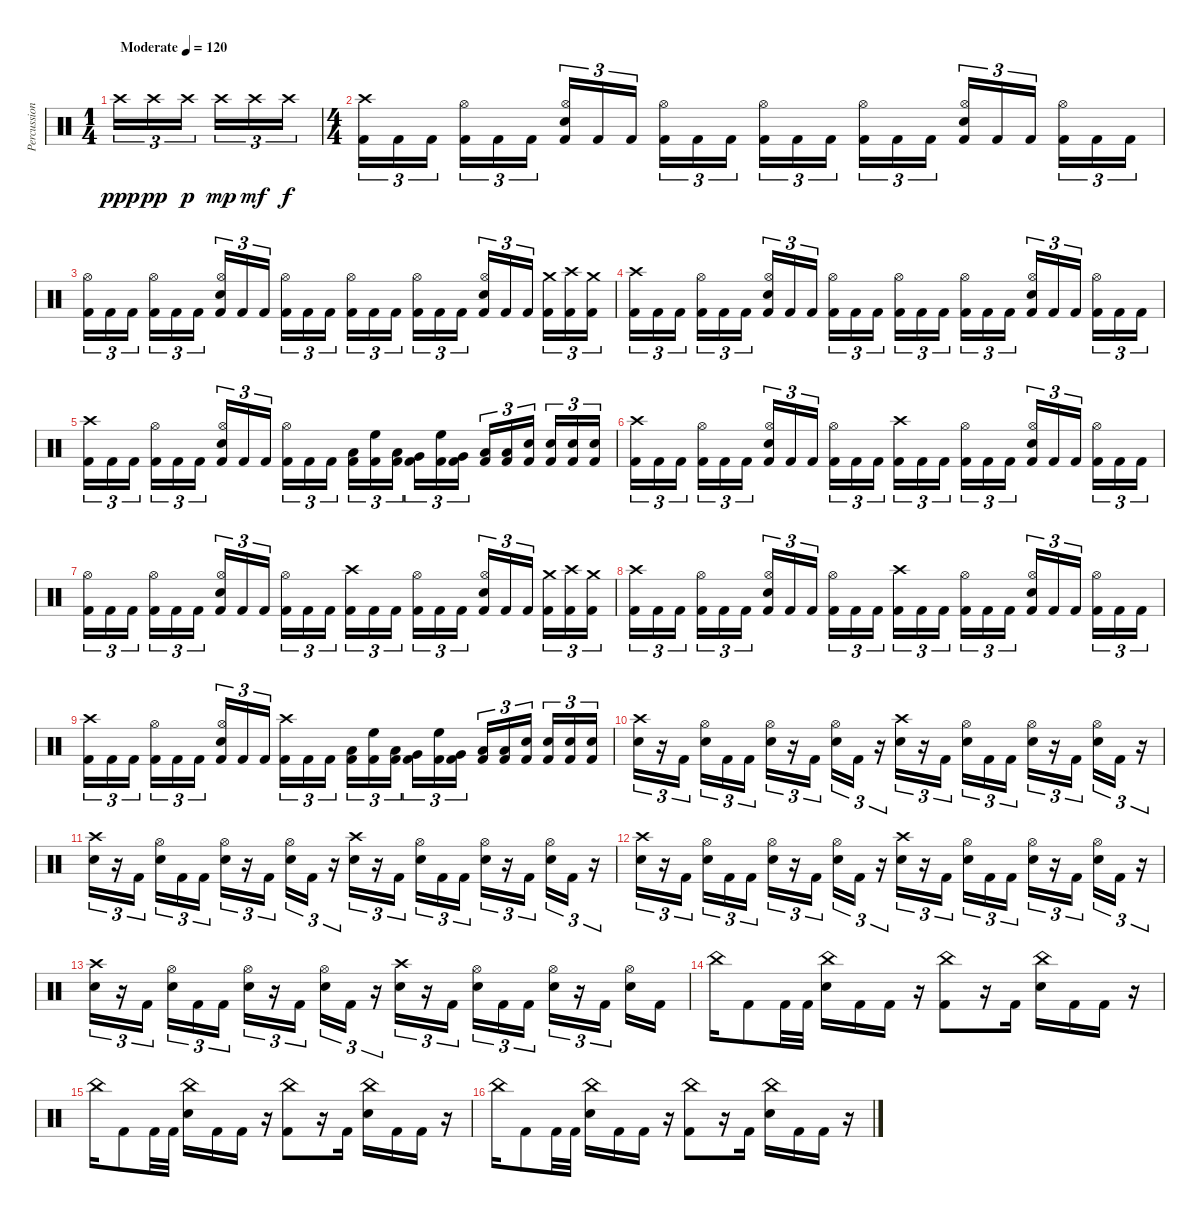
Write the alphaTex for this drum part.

\track ("Percussion" "Percussion") {instrument percussion}
\staff {score}
\articulation defaults
\ts (1 4)
\tempo (120 "Moderate")
\clef neutral
\ks c "Crash high (hit)".16{tu (3 2) dy ppp} "Crash high (hit)".16{tu (3 2) dy pp} "Crash high (hit)".16{tu (3 2) dy p beam splitsecondary} "Crash high (hit)".16{tu (3 2) dy mp} "Crash high (hit)".16{tu (3 2) dy mf} "Crash high (hit)".16{tu (3 2) dy f}
|
\ts (4 4)
("Crash high (hit)" "Kick (hit) 2").16{tu (3 2)} "Kick (hit) 2".16{tu (3 2)} "Kick (hit) 2".16{tu (3 2) beam splitsecondary} ("Hi-Hat (open)" "Kick (hit) 2").16{tu (3 2)} "Kick (hit) 2".16{tu (3 2)} "Kick (hit) 2".16{tu (3 2)} ("Hi-Hat (open)" "Electric Snare (hit)" "Kick (hit) 2").16{tu (3 2)} "Kick (hit) 2".16{tu (3 2)} "Kick (hit) 2".16{tu (3 2) beam splitsecondary} ("Hi-Hat (open)" "Kick (hit) 2").16{tu (3 2)} "Kick (hit) 2".16{tu (3 2)} "Kick (hit) 2".16{tu (3 2)} ("Hi-Hat (open)" "Kick (hit) 2").16{tu (3 2)} "Kick (hit) 2".16{tu (3 2)} "Kick (hit) 2".16{tu (3 2) beam splitsecondary} ("Hi-Hat (open)" "Kick (hit) 2").16{tu (3 2)} "Kick (hit) 2".16{tu (3 2)} "Kick (hit) 2".16{tu (3 2)} ("Hi-Hat (open)" "Electric Snare (hit)" "Kick (hit) 2").16{tu (3 2)} "Kick (hit) 2".16{tu (3 2)} "Kick (hit) 2".16{tu (3 2) beam splitsecondary} ("Hi-Hat (open)" "Kick (hit) 2").16{tu (3 2)} "Kick (hit) 2".16{tu (3 2)} "Kick (hit) 2".16{tu (3 2)} |
("Hi-Hat (open)" "Kick (hit) 2").16{tu (3 2)} "Kick (hit) 2".16{tu (3 2)} "Kick (hit) 2".16{tu (3 2) beam splitsecondary} ("Hi-Hat (open)" "Kick (hit) 2").16{tu (3 2)} "Kick (hit) 2".16{tu (3 2)} "Kick (hit) 2".16{tu (3 2)} ("Hi-Hat (open)" "Electric Snare (hit)" "Kick (hit) 2").16{tu (3 2)} "Kick (hit) 2".16{tu (3 2)} "Kick (hit) 2".16{tu (3 2) beam splitsecondary} ("Hi-Hat (open)" "Kick (hit) 2").16{tu (3 2)} "Kick (hit) 2".16{tu (3 2)} "Kick (hit) 2".16{tu (3 2)} ("Hi-Hat (open)" "Kick (hit) 2").16{tu (3 2)} "Kick (hit) 2".16{tu (3 2)} "Kick (hit) 2".16{tu (3 2) beam splitsecondary} ("Hi-Hat (open)" "Kick (hit) 2").16{tu (3 2)} "Kick (hit) 2".16{tu (3 2)} "Kick (hit) 2".16{tu (3 2)} ("Hi-Hat (open)" "Electric Snare (hit)" "Kick (hit) 2").16{tu (3 2)} "Kick (hit) 2".16{tu (3 2)} "Kick (hit) 2".16{tu (3 2) beam splitsecondary} ("Crash medium (hit)" "Kick (hit) 2").16{tu (3 2)} ("Crash high (hit)" "Kick (hit) 2").16{tu (3 2)} ("Crash medium (hit)" "Kick (hit) 2").16{tu (3 2)} |
("Crash high (hit)" "Kick (hit) 2").16{tu (3 2)} "Kick (hit) 2".16{tu (3 2)} "Kick (hit) 2".16{tu (3 2) beam splitsecondary} ("Hi-Hat (open)" "Kick (hit) 2").16{tu (3 2)} "Kick (hit) 2".16{tu (3 2)} "Kick (hit) 2".16{tu (3 2)} ("Hi-Hat (open)" "Electric Snare (hit)" "Kick (hit) 2").16{tu (3 2)} "Kick (hit) 2".16{tu (3 2)} "Kick (hit) 2".16{tu (3 2) beam splitsecondary} ("Hi-Hat (open)" "Kick (hit) 2").16{tu (3 2)} "Kick (hit) 2".16{tu (3 2)} "Kick (hit) 2".16{tu (3 2)} ("Hi-Hat (open)" "Kick (hit) 2").16{tu (3 2)} "Kick (hit) 2".16{tu (3 2)} "Kick (hit) 2".16{tu (3 2) beam splitsecondary} ("Hi-Hat (open)" "Kick (hit) 2").16{tu (3 2)} "Kick (hit) 2".16{tu (3 2)} "Kick (hit) 2".16{tu (3 2)} ("Hi-Hat (open)" "Electric Snare (hit)" "Kick (hit) 2").16{tu (3 2)} "Kick (hit) 2".16{tu (3 2)} "Kick (hit) 2".16{tu (3 2) beam splitsecondary} ("Hi-Hat (open)" "Kick (hit) 2").16{tu (3 2)} "Kick (hit) 2".16{tu (3 2)} "Kick (hit) 2".16{tu (3 2)} |
("Crash high (hit)" "Kick (hit) 2").16{tu (3 2)} "Kick (hit) 2".16{tu (3 2)} "Kick (hit) 2".16{tu (3 2) beam splitsecondary} ("Hi-Hat (open)" "Kick (hit) 2").16{tu (3 2)} "Kick (hit) 2".16{tu (3 2)} "Kick (hit) 2".16{tu (3 2)} ("Hi-Hat (open)" "Electric Snare (hit)" "Kick (hit) 2").16{tu (3 2)} "Kick (hit) 2".16{tu (3 2)} "Kick (hit) 2".16{tu (3 2) beam splitsecondary} ("Hi-Hat (open)" "Kick (hit) 2").16{tu (3 2)} "Kick (hit) 2".16{tu (3 2)} "Kick (hit) 2".16{tu (3 2)} ("Low Tom (hit)" "Kick (hit) 2").16{tu (3 2)} ("High Floor Tom (hit)" "Kick (hit) 2").16{tu (3 2)} ("Low Tom (hit)" "Kick (hit) 2").16{tu (3 2) beam splitsecondary} ("Very Low Tom (hit)" "Kick (hit) 2").16{tu (3 2)} ("High Floor Tom (hit)" "Kick (hit) 2").16{tu (3 2)} ("Very Low Tom (hit)" "Kick (hit) 2").16{tu (3 2)} ("Low Floor Tom (hit)" "Kick (hit) 2").16{tu (3 2)} ("Low Floor Tom (hit)" "Kick (hit) 2").16{tu (3 2)} ("Electric Snare (hit)" "Kick (hit) 2").16{tu (3 2) beam splitsecondary} ("Electric Snare (hit)" "Kick (hit) 2").16{tu (3 2)} ("Electric Snare (hit)" "Kick (hit) 2").16{tu (3 2)} ("Electric Snare (hit)" "Kick (hit) 2").16{tu (3 2)} |
("Crash high (hit)" "Kick (hit) 2").16{tu (3 2)} "Kick (hit) 2".16{tu (3 2)} "Kick (hit) 2".16{tu (3 2) beam splitsecondary} ("Hi-Hat (open)" "Kick (hit) 2").16{tu (3 2)} "Kick (hit) 2".16{tu (3 2)} "Kick (hit) 2".16{tu (3 2)} ("Hi-Hat (open)" "Electric Snare (hit)" "Kick (hit) 2").16{tu (3 2)} "Kick (hit) 2".16{tu (3 2)} "Kick (hit) 2".16{tu (3 2) beam splitsecondary} ("Hi-Hat (open)" "Kick (hit) 2").16{tu (3 2)} "Kick (hit) 2".16{tu (3 2)} "Kick (hit) 2".16{tu (3 2)} ("Crash high (hit)" "Kick (hit) 2").16{tu (3 2)} "Kick (hit) 2".16{tu (3 2)} "Kick (hit) 2".16{tu (3 2) beam splitsecondary} ("Hi-Hat (open)" "Kick (hit) 2").16{tu (3 2)} "Kick (hit) 2".16{tu (3 2)} "Kick (hit) 2".16{tu (3 2)} ("Hi-Hat (open)" "Electric Snare (hit)" "Kick (hit) 2").16{tu (3 2)} "Kick (hit) 2".16{tu (3 2)} "Kick (hit) 2".16{tu (3 2) beam splitsecondary} ("Hi-Hat (open)" "Kick (hit) 2").16{tu (3 2)} "Kick (hit) 2".16{tu (3 2)} "Kick (hit) 2".16{tu (3 2)} |
("Hi-Hat (open)" "Kick (hit) 2").16{tu (3 2)} "Kick (hit) 2".16{tu (3 2)} "Kick (hit) 2".16{tu (3 2) beam splitsecondary} ("Hi-Hat (open)" "Kick (hit) 2").16{tu (3 2)} "Kick (hit) 2".16{tu (3 2)} "Kick (hit) 2".16{tu (3 2)} ("Hi-Hat (open)" "Electric Snare (hit)" "Kick (hit) 2").16{tu (3 2)} "Kick (hit) 2".16{tu (3 2)} "Kick (hit) 2".16{tu (3 2) beam splitsecondary} ("Hi-Hat (open)" "Kick (hit) 2").16{tu (3 2)} "Kick (hit) 2".16{tu (3 2)} "Kick (hit) 2".16{tu (3 2)} ("Crash high (hit)" "Kick (hit) 2").16{tu (3 2)} "Kick (hit) 2".16{tu (3 2)} "Kick (hit) 2".16{tu (3 2) beam splitsecondary} ("Hi-Hat (open)" "Kick (hit) 2").16{tu (3 2)} "Kick (hit) 2".16{tu (3 2)} "Kick (hit) 2".16{tu (3 2)} ("Hi-Hat (open)" "Electric Snare (hit)" "Kick (hit) 2").16{tu (3 2)} "Kick (hit) 2".16{tu (3 2)} "Kick (hit) 2".16{tu (3 2) beam splitsecondary} ("Crash medium (hit)" "Kick (hit) 2").16{tu (3 2)} ("Crash high (hit)" "Kick (hit) 2").16{tu (3 2)} ("Crash medium (hit)" "Kick (hit) 2").16{tu (3 2)} |
("Crash high (hit)" "Kick (hit) 2").16{tu (3 2)} "Kick (hit) 2".16{tu (3 2)} "Kick (hit) 2".16{tu (3 2) beam splitsecondary} ("Hi-Hat (open)" "Kick (hit) 2").16{tu (3 2)} "Kick (hit) 2".16{tu (3 2)} "Kick (hit) 2".16{tu (3 2)} ("Hi-Hat (open)" "Electric Snare (hit)" "Kick (hit) 2").16{tu (3 2)} "Kick (hit) 2".16{tu (3 2)} "Kick (hit) 2".16{tu (3 2) beam splitsecondary} ("Hi-Hat (open)" "Kick (hit) 2").16{tu (3 2)} "Kick (hit) 2".16{tu (3 2)} "Kick (hit) 2".16{tu (3 2)} ("Crash high (hit)" "Kick (hit) 2").16{tu (3 2)} "Kick (hit) 2".16{tu (3 2)} "Kick (hit) 2".16{tu (3 2) beam splitsecondary} ("Hi-Hat (open)" "Kick (hit) 2").16{tu (3 2)} "Kick (hit) 2".16{tu (3 2)} "Kick (hit) 2".16{tu (3 2)} ("Hi-Hat (open)" "Electric Snare (hit)" "Kick (hit) 2").16{tu (3 2)} "Kick (hit) 2".16{tu (3 2)} "Kick (hit) 2".16{tu (3 2) beam splitsecondary} ("Hi-Hat (open)" "Kick (hit) 2").16{tu (3 2)} "Kick (hit) 2".16{tu (3 2)} "Kick (hit) 2".16{tu (3 2)} |
("Crash high (hit)" "Kick (hit) 2").16{tu (3 2)} "Kick (hit) 2".16{tu (3 2)} "Kick (hit) 2".16{tu (3 2) beam splitsecondary} ("Hi-Hat (open)" "Kick (hit) 2").16{tu (3 2)} "Kick (hit) 2".16{tu (3 2)} "Kick (hit) 2".16{tu (3 2)} ("Hi-Hat (open)" "Electric Snare (hit)" "Kick (hit) 2").16{tu (3 2)} "Kick (hit) 2".16{tu (3 2)} "Kick (hit) 2".16{tu (3 2) beam splitsecondary} ("Crash high (hit)" "Kick (hit) 2").16{tu (3 2)} "Kick (hit) 2".16{tu (3 2)} "Kick (hit) 2".16{tu (3 2)} ("Low Tom (hit)" "Kick (hit) 2").16{tu (3 2)} ("High Floor Tom (hit)" "Kick (hit) 2").16{tu (3 2)} ("Low Tom (hit)" "Kick (hit) 2").16{tu (3 2) beam splitsecondary} ("Very Low Tom (hit)" "Kick (hit) 2").16{tu (3 2)} ("High Floor Tom (hit)" "Kick (hit) 2").16{tu (3 2)} ("Very Low Tom (hit)" "Kick (hit) 2").16{tu (3 2)} ("Low Floor Tom (hit)" "Kick (hit) 2").16{tu (3 2)} ("Low Floor Tom (hit)" "Kick (hit) 2").16{tu (3 2)} ("Electric Snare (hit)" "Kick (hit) 2").16{tu (3 2) beam splitsecondary} ("Electric Snare (hit)" "Kick (hit) 2").16{tu (3 2)} ("Electric Snare (hit)" "Kick (hit) 2").16{tu (3 2)} ("Electric Snare (hit)" "Kick (hit) 2").16{tu (3 2)} |
("Crash high (hit)" "Electric Snare (hit)").16{tu (3 2)} r.16{tu (3 2)} "Kick (hit) 2".16{tu (3 2) beam splitsecondary} ("Hi-Hat (open)" "Electric Snare (hit)").16{tu (3 2)} "Kick (hit) 2".16{tu (3 2)} "Kick (hit) 2".16{tu (3 2)} ("Hi-Hat (open)" "Electric Snare (hit)").16{tu (3 2)} r.16{tu (3 2)} "Kick (hit) 2".16{tu (3 2) beam splitsecondary} ("Hi-Hat (open)" "Electric Snare (hit)").16{tu (3 2)} "Kick (hit) 2".16{tu (3 2)} r.16{tu (3 2)} ("Crash high (hit)" "Electric Snare (hit)").16{tu (3 2)} r.16{tu (3 2)} "Kick (hit) 2".16{tu (3 2) beam splitsecondary} ("Hi-Hat (open)" "Electric Snare (hit)").16{tu (3 2)} "Kick (hit) 2".16{tu (3 2)} "Kick (hit) 2".16{tu (3 2)} ("Hi-Hat (open)" "Electric Snare (hit)").16{tu (3 2)} r.16{tu (3 2)} "Kick (hit) 2".16{tu (3 2) beam splitsecondary} ("Hi-Hat (open)" "Electric Snare (hit)").16{tu (3 2)} "Kick (hit) 2".16{tu (3 2)} r.16{tu (3 2)} |
("Crash high (hit)" "Electric Snare (hit)").16{tu (3 2)} r.16{tu (3 2)} "Kick (hit) 2".16{tu (3 2) beam splitsecondary} ("Hi-Hat (open)" "Electric Snare (hit)").16{tu (3 2)} "Kick (hit) 2".16{tu (3 2)} "Kick (hit) 2".16{tu (3 2)} ("Hi-Hat (open)" "Electric Snare (hit)").16{tu (3 2)} r.16{tu (3 2)} "Kick (hit) 2".16{tu (3 2) beam splitsecondary} ("Hi-Hat (open)" "Electric Snare (hit)").16{tu (3 2)} "Kick (hit) 2".16{tu (3 2)} r.16{tu (3 2)} ("Crash high (hit)" "Electric Snare (hit)").16{tu (3 2)} r.16{tu (3 2)} "Kick (hit) 2".16{tu (3 2) beam splitsecondary} ("Hi-Hat (open)" "Electric Snare (hit)").16{tu (3 2)} "Kick (hit) 2".16{tu (3 2)} "Kick (hit) 2".16{tu (3 2)} ("Hi-Hat (open)" "Electric Snare (hit)").16{tu (3 2)} r.16{tu (3 2)} "Kick (hit) 2".16{tu (3 2) beam splitsecondary} ("Hi-Hat (open)" "Electric Snare (hit)").16{tu (3 2)} "Kick (hit) 2".16{tu (3 2)} r.16{tu (3 2)} |
("Crash high (hit)" "Electric Snare (hit)").16{tu (3 2)} r.16{tu (3 2)} "Kick (hit) 2".16{tu (3 2) beam splitsecondary} ("Hi-Hat (open)" "Electric Snare (hit)").16{tu (3 2)} "Kick (hit) 2".16{tu (3 2)} "Kick (hit) 2".16{tu (3 2)} ("Hi-Hat (open)" "Electric Snare (hit)").16{tu (3 2)} r.16{tu (3 2)} "Kick (hit) 2".16{tu (3 2) beam splitsecondary} ("Hi-Hat (open)" "Electric Snare (hit)").16{tu (3 2)} "Kick (hit) 2".16{tu (3 2)} r.16{tu (3 2)} ("Crash high (hit)" "Electric Snare (hit)").16{tu (3 2)} r.16{tu (3 2)} "Kick (hit) 2".16{tu (3 2) beam splitsecondary} ("Hi-Hat (open)" "Electric Snare (hit)").16{tu (3 2)} "Kick (hit) 2".16{tu (3 2)} "Kick (hit) 2".16{tu (3 2)} ("Hi-Hat (open)" "Electric Snare (hit)").16{tu (3 2)} r.16{tu (3 2)} "Kick (hit) 2".16{tu (3 2) beam splitsecondary} ("Hi-Hat (open)" "Electric Snare (hit)").16{tu (3 2)} "Kick (hit) 2".16{tu (3 2)} r.16{tu (3 2)} |
("Crash high (hit)" "Electric Snare (hit)").16{tu (3 2)} r.16{tu (3 2)} "Kick (hit) 2".16{tu (3 2) beam splitsecondary} ("Hi-Hat (open)" "Electric Snare (hit)").16{tu (3 2)} "Kick (hit) 2".16{tu (3 2)} "Kick (hit) 2".16{tu (3 2)} ("Hi-Hat (open)" "Electric Snare (hit)").16{tu (3 2)} r.16{tu (3 2)} "Kick (hit) 2".16{tu (3 2) beam splitsecondary} ("Hi-Hat (open)" "Electric Snare (hit)").16{tu (3 2)} "Kick (hit) 2".16{tu (3 2)} r.16{tu (3 2)} ("Crash high (hit)" "Electric Snare (hit)").16{tu (3 2)} r.16{tu (3 2)} "Kick (hit) 2".16{tu (3 2) beam splitsecondary} ("Hi-Hat (open)" "Electric Snare (hit)").16{tu (3 2)} "Kick (hit) 2".16{tu (3 2)} "Kick (hit) 2".16{tu (3 2)} ("Hi-Hat (open)" "Electric Snare (hit)").16{tu (3 2)} r.16{tu (3 2)} "Kick (hit) 2".16{tu (3 2) beam splitsecondary} ("Hi-Hat (open)" "Electric Snare (hit)").16 "Kick (hit) 2".16 |
"China (hit)".16 "Kick (hit) 2".8 "Kick (hit) 2".32 "Kick (hit) 2".32 ("China (hit)" "Electric Snare (hit)").16 "Kick (hit) 2".16 "Kick (hit) 2".16 r.16 ("China (hit)" "Kick (hit) 2").8 r.16 "Kick (hit) 2".16 ("China (hit)" "Electric Snare (hit)").16 "Kick (hit) 2".16 "Kick (hit) 2".16 r.16 |
"China (hit)".16 "Kick (hit) 2".8 "Kick (hit) 2".32 "Kick (hit) 2".32 ("China (hit)" "Electric Snare (hit)").16 "Kick (hit) 2".16 "Kick (hit) 2".16 r.16 ("China (hit)" "Kick (hit) 2").8 r.16 "Kick (hit) 2".16 ("China (hit)" "Electric Snare (hit)").16 "Kick (hit) 2".16 "Kick (hit) 2".16 r.16 |
"China (hit)".16 "Kick (hit) 2".8 "Kick (hit) 2".32 "Kick (hit) 2".32 ("China (hit)" "Electric Snare (hit)").16 "Kick (hit) 2".16 "Kick (hit) 2".16 r.16 ("China (hit)" "Kick (hit) 2").8 r.16 "Kick (hit) 2".16 ("China (hit)" "Electric Snare (hit)").16 "Kick (hit) 2".16 "Kick (hit) 2".16 r.16
